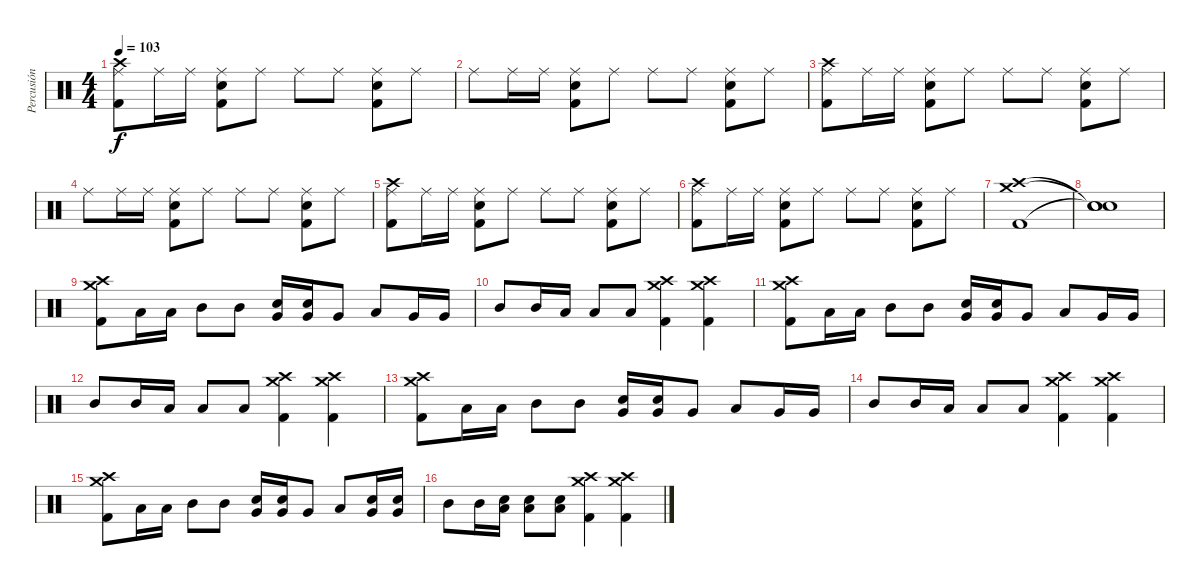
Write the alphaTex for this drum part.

\track ("Percusión" "Percusión") {instrument percussion}
\staff {score}
\articulation defaults
\ts (4 4)
\tempo 103
\clef neutral
\ks c
("Ride (middle)" "Crash high (hit)" "Kick (hit) 2").8{dy f} "Ride (middle)".16 "Ride (middle)".16 ("Ride (middle)" "Snare (hit) 2" "Kick (hit) 2").8 "Ride (middle)".8 "Ride (middle)".8 "Ride (middle)".8 ("Ride (middle)" "Snare (hit) 2" "Kick (hit) 2").8 "Ride (middle)".8 |
"Ride (middle)".8 "Ride (middle)".16 "Ride (middle)".16 ("Ride (middle)" "Snare (hit) 2" "Kick (hit) 2").8 "Ride (middle)".8 "Ride (middle)".8 "Ride (middle)".8 ("Ride (middle)" "Snare (hit) 2" "Kick (hit) 2").8 "Ride (middle)".8 |
("Ride (middle)" "Crash high (hit)" "Kick (hit) 2").8 "Ride (middle)".16 "Ride (middle)".16 ("Ride (middle)" "Snare (hit) 2" "Kick (hit) 2").8 "Ride (middle)".8 "Ride (middle)".8 "Ride (middle)".8 ("Ride (middle)" "Snare (hit) 2" "Kick (hit) 2").8 "Ride (middle)".8 |
"Ride (middle)".8 "Ride (middle)".16 "Ride (middle)".16 ("Ride (middle)" "Snare (hit) 2" "Kick (hit) 2").8 "Ride (middle)".8 "Ride (middle)".8 "Ride (middle)".8 ("Ride (middle)" "Snare (hit) 2" "Kick (hit) 2").8 "Ride (middle)".8 |
("Ride (middle)" "Crash high (hit)" "Kick (hit) 2").8 "Ride (middle)".16 "Ride (middle)".16 ("Ride (middle)" "Snare (hit) 2" "Kick (hit) 2").8 "Ride (middle)".8 "Ride (middle)".8 "Ride (middle)".8 ("Ride (middle)" "Snare (hit) 2" "Kick (hit) 2").8 "Ride (middle)".8 |
("Ride (middle)" "Crash high (hit)" "Kick (hit) 2").8 "Ride (middle)".16 "Ride (middle)".16 ("Ride (middle)" "Snare (hit) 2" "Kick (hit) 2").8 "Ride (middle)".8 "Ride (middle)".8 "Ride (middle)".8 ("Ride (middle)" "Snare (hit) 2" "Kick (hit) 2").8 "Ride (middle)".8 |
("Crash medium (hit)" "Crash high (hit)" "Kick (hit) 2").1 |
("Snare (hit)"{t} "Snare (hit)"{t} "Snare (hit)"{t}).1 |
("Crash medium (hit)" "Crash high (hit)" "Kick (hit) 2").8 "Low Tom (hit)".16 "Low Tom (hit)".16 "Mid Tom (hit)".8 "Mid Tom (hit)".8 ("Very Low Tom (hit)" "Snare (hit) 2").16 ("Very Low Tom (hit)" "Snare (hit) 2").16 "Very Low Tom (hit)".8 "Low Floor Tom (hit)".8 "Very Low Tom (hit)".16 "Very Low Tom (hit)".16 |
"Mid Tom (hit)".8 "Mid Tom (hit)".16 "Low Tom (hit)".16 "Low Tom (hit)".8 "Low Tom (hit)".8 ("Crash medium (hit)" "Crash high (hit)" "Kick (hit) 2").4 ("Crash medium (hit)" "Crash high (hit)" "Kick (hit) 2").4 |
("Crash medium (hit)" "Crash high (hit)" "Kick (hit) 2").8 "Low Tom (hit)".16 "Low Tom (hit)".16 "Mid Tom (hit)".8 "Mid Tom (hit)".8 ("Very Low Tom (hit)" "Snare (hit) 2").16 ("Very Low Tom (hit)" "Snare (hit) 2").16 "Very Low Tom (hit)".8 "Low Floor Tom (hit)".8 "Very Low Tom (hit)".16 "Very Low Tom (hit)".16 |
"Mid Tom (hit)".8 "Mid Tom (hit)".16 "Low Tom (hit)".16 "Low Tom (hit)".8 "Low Tom (hit)".8 ("Crash medium (hit)" "Crash high (hit)" "Kick (hit) 2").4 ("Crash medium (hit)" "Crash high (hit)" "Kick (hit) 2").4 |
("Crash medium (hit)" "Crash high (hit)" "Kick (hit) 2").8 "Low Tom (hit)".16 "Low Tom (hit)".16 "Mid Tom (hit)".8 "Mid Tom (hit)".8 ("Very Low Tom (hit)" "Snare (hit) 2").16 ("Very Low Tom (hit)" "Snare (hit) 2").16 "Very Low Tom (hit)".8 "Low Floor Tom (hit)".8 "Very Low Tom (hit)".16 "Very Low Tom (hit)".16 |
"Mid Tom (hit)".8 "Mid Tom (hit)".16 "Low Tom (hit)".16 "Low Tom (hit)".8 "Low Tom (hit)".8 ("Crash medium (hit)" "Crash high (hit)" "Kick (hit) 2").4 ("Crash medium (hit)" "Crash high (hit)" "Kick (hit) 2").4 |
("Crash medium (hit)" "Crash high (hit)" "Kick (hit) 2").8 "Low Tom (hit)".16 "Low Tom (hit)".16 "Mid Tom (hit)".8 "Mid Tom (hit)".8 ("Very Low Tom (hit)" "Snare (hit) 2").16 ("Very Low Tom (hit)" "Snare (hit) 2").16 "Very Low Tom (hit)".8 "Low Floor Tom (hit)".8 ("Very Low Tom (hit)" "Snare (hit) 2").16 ("Very Low Tom (hit)" "Snare (hit) 2").16 |
"Mid Tom (hit)".8 "Mid Tom (hit)".16 ("Low Tom (hit)" "Snare (hit) 2").16 ("Low Tom (hit)" "Snare (hit) 2").8 ("Low Tom (hit)" "Snare (hit) 2").8 ("Crash medium (hit)" "Crash high (hit)" "Kick (hit) 2").4 ("Crash medium (hit)" "Crash high (hit)" "Kick (hit) 2").4
